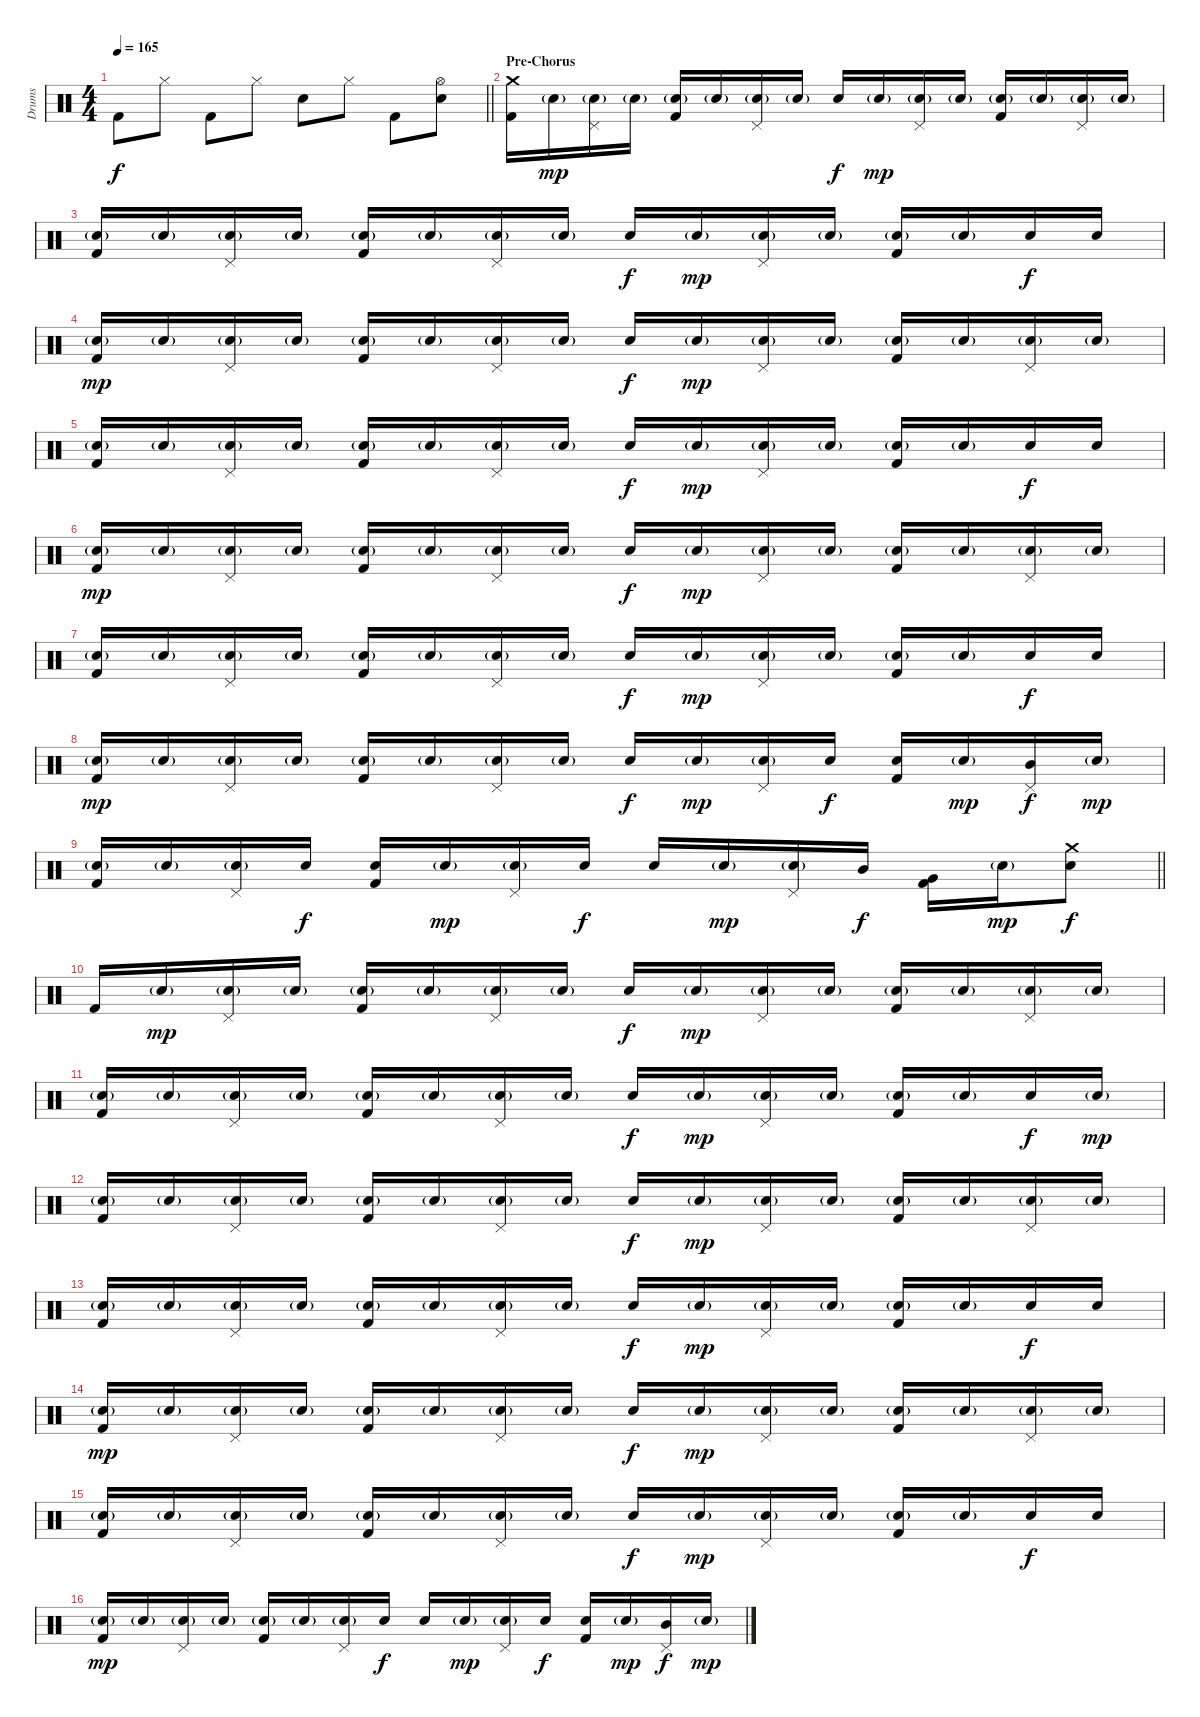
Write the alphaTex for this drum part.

\track ("Drums" "Drums") {instrument percussion}
\staff {score}
\articulation defaults
\ts (4 4)
\tempo 165
\clef neutral
\barLineRight lightlight
\ks c "Kick (hit) 2".8{dy f} "Hi-Hat (closed)".8 "Kick (hit) 2".8 "Hi-Hat (closed)".8 "Electric Snare (hit)".8 "Hi-Hat (closed)".8 "Kick (hit) 2".8
("Hi-Hat (open)" "Electric Snare (hit)").8 |
\section ("" "Pre-Chorus")
("Crash medium (hit)" "Kick (hit) 2").16 "Electric Snare (hit)"{g}.16{dy mp} ("Pedal Hi-Hat (hit)" "Electric Snare (hit)"{g}).16 "Electric Snare (hit)"{g}.16 ("Electric Snare (hit)"{g} "Kick (hit) 2").16 "Electric Snare (hit)"{g}.16 ("Pedal Hi-Hat (hit)" "Electric Snare (hit)"{g}).16 "Electric Snare (hit)"{g}.16 "Electric Snare (hit)".16{dy f} "Electric Snare (hit)"{g}.16{dy mp} ("Pedal Hi-Hat (hit)" "Electric Snare (hit)"{g}).16 "Electric Snare (hit)"{g}.16 ("Electric Snare (hit)"{g} "Kick (hit) 2").16 "Electric Snare (hit)"{g}.16 ("Pedal Hi-Hat (hit)" "Electric Snare (hit)"{g}).16 "Electric Snare (hit)"{g}.16 |
("Electric Snare (hit)"{g} "Kick (hit) 2").16 "Electric Snare (hit)"{g}.16 ("Pedal Hi-Hat (hit)" "Electric Snare (hit)"{g}).16 "Electric Snare (hit)"{g}.16 ("Electric Snare (hit)"{g} "Kick (hit) 2").16 "Electric Snare (hit)"{g}.16 ("Pedal Hi-Hat (hit)" "Electric Snare (hit)"{g}).16 "Electric Snare (hit)"{g}.16 "Electric Snare (hit)".16{dy f} "Electric Snare (hit)"{g}.16{dy mp} ("Pedal Hi-Hat (hit)" "Electric Snare (hit)"{g}).16 "Electric Snare (hit)"{g}.16 ("Electric Snare (hit)"{g} "Kick (hit) 2").16 "Electric Snare (hit)"{g}.16 "Electric Snare (hit)".16{dy f} "Electric Snare (hit)".16 |
("Electric Snare (hit)"{g} "Kick (hit) 2").16{dy mp} "Electric Snare (hit)"{g}.16 ("Pedal Hi-Hat (hit)" "Electric Snare (hit)"{g}).16 "Electric Snare (hit)"{g}.16 ("Electric Snare (hit)"{g} "Kick (hit) 2").16 "Electric Snare (hit)"{g}.16 ("Pedal Hi-Hat (hit)" "Electric Snare (hit)"{g}).16 "Electric Snare (hit)"{g}.16 "Electric Snare (hit)".16{dy f} "Electric Snare (hit)"{g}.16{dy mp} ("Pedal Hi-Hat (hit)" "Electric Snare (hit)"{g}).16 "Electric Snare (hit)"{g}.16 ("Electric Snare (hit)"{g} "Kick (hit) 2").16 "Electric Snare (hit)"{g}.16 ("Pedal Hi-Hat (hit)" "Electric Snare (hit)"{g}).16 "Electric Snare (hit)"{g}.16 |
("Electric Snare (hit)"{g} "Kick (hit) 2").16 "Electric Snare (hit)"{g}.16 ("Pedal Hi-Hat (hit)" "Electric Snare (hit)"{g}).16 "Electric Snare (hit)"{g}.16 ("Electric Snare (hit)"{g} "Kick (hit) 2").16 "Electric Snare (hit)"{g}.16 ("Pedal Hi-Hat (hit)" "Electric Snare (hit)"{g}).16 "Electric Snare (hit)"{g}.16 "Electric Snare (hit)".16{dy f} "Electric Snare (hit)"{g}.16{dy mp} ("Pedal Hi-Hat (hit)" "Electric Snare (hit)"{g}).16 "Electric Snare (hit)"{g}.16 ("Electric Snare (hit)"{g} "Kick (hit) 2").16 "Electric Snare (hit)"{g}.16 "Electric Snare (hit)".16{dy f} "Electric Snare (hit)".16 |
("Electric Snare (hit)"{g} "Kick (hit) 2").16{dy mp} "Electric Snare (hit)"{g}.16 ("Pedal Hi-Hat (hit)" "Electric Snare (hit)"{g}).16 "Electric Snare (hit)"{g}.16 ("Electric Snare (hit)"{g} "Kick (hit) 2").16 "Electric Snare (hit)"{g}.16 ("Pedal Hi-Hat (hit)" "Electric Snare (hit)"{g}).16 "Electric Snare (hit)"{g}.16 "Electric Snare (hit)".16{dy f} "Electric Snare (hit)"{g}.16{dy mp} ("Pedal Hi-Hat (hit)" "Electric Snare (hit)"{g}).16 "Electric Snare (hit)"{g}.16 ("Electric Snare (hit)"{g} "Kick (hit) 2").16 "Electric Snare (hit)"{g}.16 ("Pedal Hi-Hat (hit)" "Electric Snare (hit)"{g}).16 "Electric Snare (hit)"{g}.16 |
("Electric Snare (hit)"{g} "Kick (hit) 2").16 "Electric Snare (hit)"{g}.16 ("Pedal Hi-Hat (hit)" "Electric Snare (hit)"{g}).16 "Electric Snare (hit)"{g}.16 ("Electric Snare (hit)"{g} "Kick (hit) 2").16 "Electric Snare (hit)"{g}.16 ("Pedal Hi-Hat (hit)" "Electric Snare (hit)"{g}).16 "Electric Snare (hit)"{g}.16 "Electric Snare (hit)".16{dy f} "Electric Snare (hit)"{g}.16{dy mp} ("Pedal Hi-Hat (hit)" "Electric Snare (hit)"{g}).16 "Electric Snare (hit)"{g}.16 ("Electric Snare (hit)"{g} "Kick (hit) 2").16 "Electric Snare (hit)"{g}.16 "Electric Snare (hit)".16{dy f} "Electric Snare (hit)".16 |
("Electric Snare (hit)"{g} "Kick (hit) 2").16{dy mp} "Electric Snare (hit)"{g}.16 ("Pedal Hi-Hat (hit)" "Electric Snare (hit)"{g}).16 "Electric Snare (hit)"{g}.16 ("Electric Snare (hit)"{g} "Kick (hit) 2").16 "Electric Snare (hit)"{g}.16 ("Pedal Hi-Hat (hit)" "Electric Snare (hit)"{g}).16 "Electric Snare (hit)"{g}.16 "Electric Snare (hit)".16{dy f} "Electric Snare (hit)"{g}.16{dy mp} ("Pedal Hi-Hat (hit)" "Electric Snare (hit)"{g}).16 "Electric Snare (hit)".16{dy f} ("Electric Snare (hit)" "Kick (hit) 2").16 "Electric Snare (hit)"{g}.16{dy mp} ("Pedal Hi-Hat (hit)" "Mid Tom (hit)").16{dy f} "Electric Snare (hit)"{g}.16{dy mp} |
\barLineRight lightlight
("Electric Snare (hit)"{g} "Kick (hit) 2").16 "Electric Snare (hit)"{g}.16 ("Pedal Hi-Hat (hit)" "Electric Snare (hit)"{g}).16 "Electric Snare (hit)".16{dy f} ("Electric Snare (hit)" "Kick (hit) 2").16 "Electric Snare (hit)"{g}.16{dy mp} ("Pedal Hi-Hat (hit)" "Electric Snare (hit)"{g}).16 "Electric Snare (hit)".16{dy f} "Electric Snare (hit)".16 "Electric Snare (hit)"{g}.16{dy mp} ("Pedal Hi-Hat (hit)" "Electric Snare (hit)"{g}).16 "Mid Tom (hit)".16{dy f} ("Very Low Tom (hit)" "Kick (hit) 2").16 "Electric Snare (hit)"{g}.16{dy mp} ("Crash medium (hit)" "Electric Snare (hit)").8{dy f} |
"Kick (hit) 2".16 "Electric Snare (hit)"{g}.16{dy mp} ("Pedal Hi-Hat (hit)" "Electric Snare (hit)"{g}).16 "Electric Snare (hit)"{g}.16 ("Electric Snare (hit)"{g} "Kick (hit) 2").16 "Electric Snare (hit)"{g}.16 ("Pedal Hi-Hat (hit)" "Electric Snare (hit)"{g}).16 "Electric Snare (hit)"{g}.16 "Electric Snare (hit)".16{dy f} "Electric Snare (hit)"{g}.16{dy mp} ("Pedal Hi-Hat (hit)" "Electric Snare (hit)"{g}).16 "Electric Snare (hit)"{g}.16 ("Electric Snare (hit)"{g} "Kick (hit) 2").16 "Electric Snare (hit)"{g}.16 ("Pedal Hi-Hat (hit)" "Electric Snare (hit)"{g}).16 "Electric Snare (hit)"{g}.16 |
("Electric Snare (hit)"{g} "Kick (hit) 2").16 "Electric Snare (hit)"{g}.16 ("Pedal Hi-Hat (hit)" "Electric Snare (hit)"{g}).16 "Electric Snare (hit)"{g}.16 ("Electric Snare (hit)"{g} "Kick (hit) 2").16 "Electric Snare (hit)"{g}.16 ("Pedal Hi-Hat (hit)" "Electric Snare (hit)"{g}).16 "Electric Snare (hit)"{g}.16 "Electric Snare (hit)".16{dy f} "Electric Snare (hit)"{g}.16{dy mp} ("Pedal Hi-Hat (hit)" "Electric Snare (hit)"{g}).16 "Electric Snare (hit)"{g}.16 ("Electric Snare (hit)"{g} "Kick (hit) 2").16 "Electric Snare (hit)"{g}.16 "Electric Snare (hit)".16{dy f} "Electric Snare (hit)"{g}.16{dy mp} |
("Electric Snare (hit)"{g} "Kick (hit) 2").16 "Electric Snare (hit)"{g}.16 ("Pedal Hi-Hat (hit)" "Electric Snare (hit)"{g}).16 "Electric Snare (hit)"{g}.16 ("Electric Snare (hit)"{g} "Kick (hit) 2").16 "Electric Snare (hit)"{g}.16 ("Pedal Hi-Hat (hit)" "Electric Snare (hit)"{g}).16 "Electric Snare (hit)"{g}.16 "Electric Snare (hit)".16{dy f} "Electric Snare (hit)"{g}.16{dy mp} ("Pedal Hi-Hat (hit)" "Electric Snare (hit)"{g}).16 "Electric Snare (hit)"{g}.16 ("Electric Snare (hit)"{g} "Kick (hit) 2").16 "Electric Snare (hit)"{g}.16 ("Pedal Hi-Hat (hit)" "Electric Snare (hit)"{g}).16 "Electric Snare (hit)"{g}.16 |
("Electric Snare (hit)"{g} "Kick (hit) 2").16 "Electric Snare (hit)"{g}.16 ("Pedal Hi-Hat (hit)" "Electric Snare (hit)"{g}).16 "Electric Snare (hit)"{g}.16 ("Electric Snare (hit)"{g} "Kick (hit) 2").16 "Electric Snare (hit)"{g}.16 ("Pedal Hi-Hat (hit)" "Electric Snare (hit)"{g}).16 "Electric Snare (hit)"{g}.16 "Electric Snare (hit)".16{dy f} "Electric Snare (hit)"{g}.16{dy mp} ("Pedal Hi-Hat (hit)" "Electric Snare (hit)"{g}).16 "Electric Snare (hit)"{g}.16 ("Electric Snare (hit)"{g} "Kick (hit) 2").16 "Electric Snare (hit)"{g}.16 "Electric Snare (hit)".16{dy f} "Electric Snare (hit)".16 |
("Electric Snare (hit)"{g} "Kick (hit) 2").16{dy mp} "Electric Snare (hit)"{g}.16 ("Pedal Hi-Hat (hit)" "Electric Snare (hit)"{g}).16 "Electric Snare (hit)"{g}.16 ("Electric Snare (hit)"{g} "Kick (hit) 2").16 "Electric Snare (hit)"{g}.16 ("Pedal Hi-Hat (hit)" "Electric Snare (hit)"{g}).16 "Electric Snare (hit)"{g}.16 "Electric Snare (hit)".16{dy f} "Electric Snare (hit)"{g}.16{dy mp} ("Pedal Hi-Hat (hit)" "Electric Snare (hit)"{g}).16 "Electric Snare (hit)"{g}.16 ("Electric Snare (hit)"{g} "Kick (hit) 2").16 "Electric Snare (hit)"{g}.16 ("Pedal Hi-Hat (hit)" "Electric Snare (hit)"{g}).16 "Electric Snare (hit)"{g}.16 |
("Electric Snare (hit)"{g} "Kick (hit) 2").16 "Electric Snare (hit)"{g}.16 ("Pedal Hi-Hat (hit)" "Electric Snare (hit)"{g}).16 "Electric Snare (hit)"{g}.16 ("Electric Snare (hit)"{g} "Kick (hit) 2").16 "Electric Snare (hit)"{g}.16 ("Pedal Hi-Hat (hit)" "Electric Snare (hit)"{g}).16 "Electric Snare (hit)"{g}.16 "Electric Snare (hit)".16{dy f} "Electric Snare (hit)"{g}.16{dy mp} ("Pedal Hi-Hat (hit)" "Electric Snare (hit)"{g}).16 "Electric Snare (hit)"{g}.16 ("Electric Snare (hit)"{g} "Kick (hit) 2").16 "Electric Snare (hit)"{g}.16 "Electric Snare (hit)".16{dy f} "Electric Snare (hit)".16 |
("Electric Snare (hit)"{g} "Kick (hit) 2").16{dy mp} "Electric Snare (hit)"{g}.16 ("Pedal Hi-Hat (hit)" "Electric Snare (hit)"{g}).16 "Electric Snare (hit)"{g}.16 ("Electric Snare (hit)"{g} "Kick (hit) 2").16 "Electric Snare (hit)"{g}.16 ("Pedal Hi-Hat (hit)" "Electric Snare (hit)"{g}).16 "Electric Snare (hit)".16{dy f} "Electric Snare (hit)".16 "Electric Snare (hit)"{g}.16{dy mp} ("Pedal Hi-Hat (hit)" "Electric Snare (hit)"{g}).16 "Electric Snare (hit)".16{dy f} ("Electric Snare (hit)" "Kick (hit) 2").16 "Electric Snare (hit)"{g}.16{dy mp} ("Pedal Hi-Hat (hit)" "Mid Tom (hit)").16{dy f} "Electric Snare (hit)"{g}.16{dy mp}
